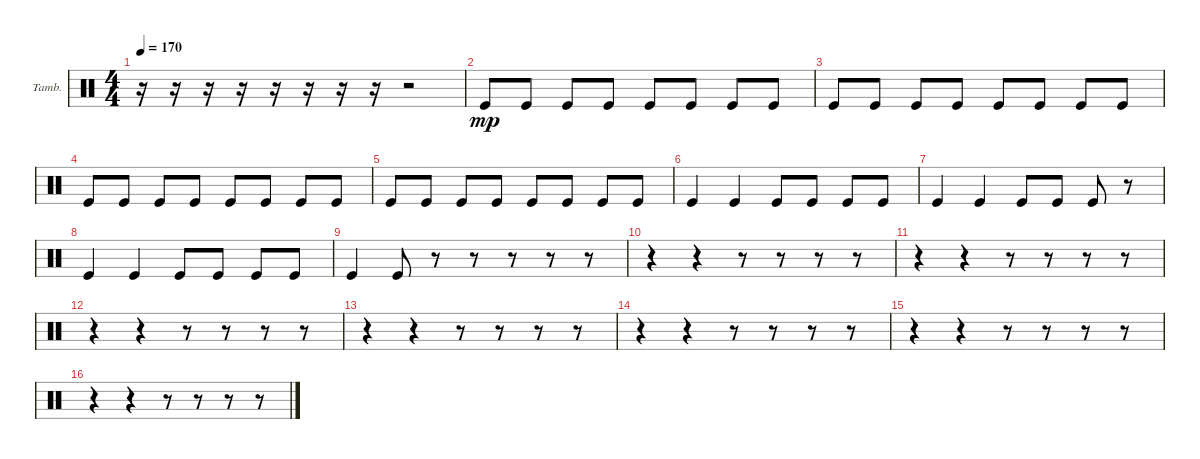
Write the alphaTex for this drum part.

\defaultSystemsLayout 4
\bracketExtendMode groupsimilarinstruments
\firstSystemTrackNameOrientation horizontal
\otherSystemsTrackNameOrientation horizontal
\track ("Tambourine" "Tamb.") {instrument percussion}
\staff {score}
\articulation defaults
\ts (4 4)
\tempo 170
\clef neutral
\scale
0.333333
\ks c
r.16{dy mp} r.16 r.16 r.16 r.16 r.16 r.16 r.16 r.2 |
\scale
0.333333 "Kick (hit)".8 "Kick (hit)".8 "Kick (hit)".8 "Kick (hit)".8 "Kick (hit)".8 "Kick (hit)".8 "Kick (hit)".8 "Kick (hit)".8 |
\scale
0.333333 "Kick (hit)".8 "Kick (hit)".8 "Kick (hit)".8 "Kick (hit)".8 "Kick (hit)".8 "Kick (hit)".8 "Kick (hit)".8 "Kick (hit)".8 |
\scale
0.333333 "Kick (hit)".8 "Kick (hit)".8 "Kick (hit)".8 "Kick (hit)".8 "Kick (hit)".8 "Kick (hit)".8 "Kick (hit)".8 "Kick (hit)".8 |
\scale
0.333333 "Kick (hit)".8 "Kick (hit)".8 "Kick (hit)".8 "Kick (hit)".8 "Kick (hit)".8 "Kick (hit)".8 "Kick (hit)".8 "Kick (hit)".8 |
\scale
0.333333 "Kick (hit)".4 "Kick (hit)".4 "Kick (hit)".8 "Kick (hit)".8 "Kick (hit)".8 "Kick (hit)".8 |
\scale
0.333333 "Kick (hit)".4 "Kick (hit)".4 "Kick (hit)".8 "Kick (hit)".8 "Kick (hit)".8 r.8 |
\scale
0.333333 "Kick (hit)".4 "Kick (hit)".4 "Kick (hit)".8 "Kick (hit)".8 "Kick (hit)".8 "Kick (hit)".8 |
\scale
0.333333 "Kick (hit)".4 "Kick (hit)".8 r.8 r.8 r.8 r.8 r.8 |
\scale
0.333333 r.4 r.4 r.8 r.8 r.8 r.8 |
\scale
0.333333 r.4 r.4 r.8 r.8 r.8 r.8 |
\scale
0.333333 r.4 r.4 r.8 r.8 r.8 r.8 |
\scale
0.333333 r.4 r.4 r.8 r.8 r.8 r.8 |
\scale
0.333333 r.4 r.4 r.8 r.8 r.8 r.8 |
\scale
0.333333 r.4 r.4 r.8 r.8 r.8 r.8 |
\scale
0.333333 r.4 r.4 r.8 r.8 r.8 r.8
